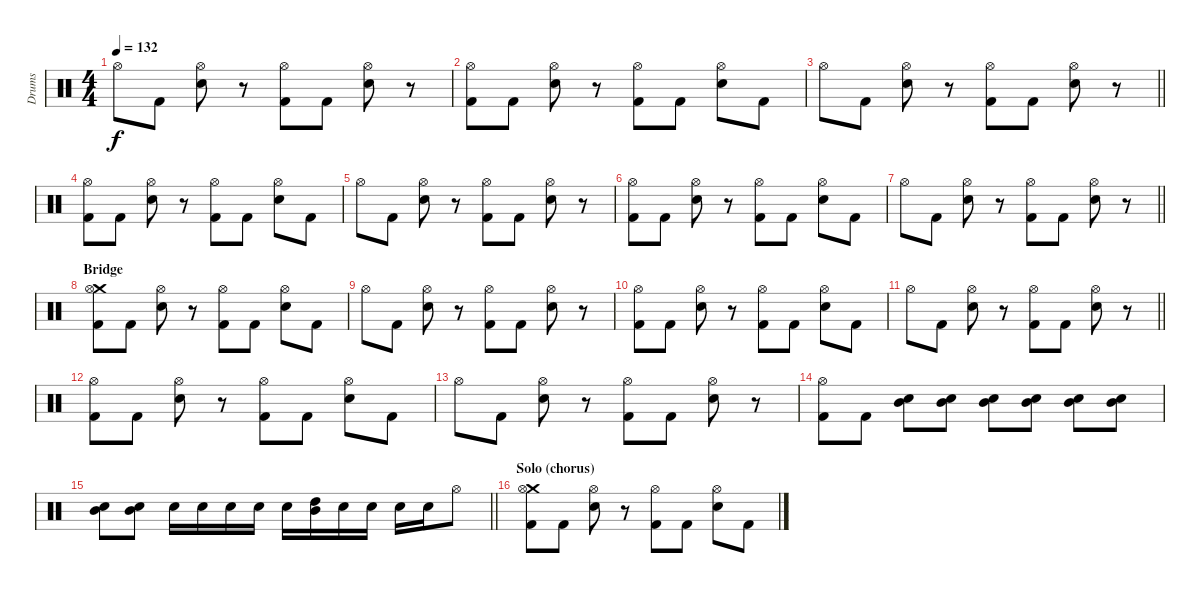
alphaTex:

\track ("Drums" "Drums") {instrument percussion}
\staff
\articulation defaults
\ts (4 4)
\tempo 132
\clef neutral
\ks c "Hi-Hat (open)".8{dy f} "Kick (hit) 2".8
("Hi-Hat (open)" "Snare (hit) 2").8 r.8 ("Hi-Hat (open)" "Kick (hit) 2").8 "Kick (hit) 2".8 ("Hi-Hat (open)" "Snare (hit) 2").8 r.8 |
("Hi-Hat (open)" "Kick (hit) 2").8 "Kick (hit) 2".8 ("Hi-Hat (open)" "Snare (hit) 2").8 r.8 ("Hi-Hat (open)" "Kick (hit) 2").8 "Kick (hit) 2".8 ("Hi-Hat (open)" "Snare (hit) 2").8 "Kick (hit) 2".8 |
\barLineRight lightlight "Hi-Hat (open)".8 "Kick (hit) 2".8
("Hi-Hat (open)" "Snare (hit) 2").8 r.8 ("Hi-Hat (open)" "Kick (hit) 2").8 "Kick (hit) 2".8 ("Hi-Hat (open)" "Snare (hit) 2").8 r.8 |
("Hi-Hat (open)" "Kick (hit) 2").8 "Kick (hit) 2".8 ("Hi-Hat (open)" "Snare (hit) 2").8 r.8 ("Hi-Hat (open)" "Kick (hit) 2").8 "Kick (hit) 2".8 ("Hi-Hat (open)" "Snare (hit) 2").8 "Kick (hit) 2".8 |
"Hi-Hat (open)".8 "Kick (hit) 2".8 ("Hi-Hat (open)" "Snare (hit) 2").8 r.8 ("Hi-Hat (open)" "Kick (hit) 2").8 "Kick (hit) 2".8 ("Hi-Hat (open)" "Snare (hit) 2").8 r.8 |
("Hi-Hat (open)" "Kick (hit) 2").8 "Kick (hit) 2".8 ("Hi-Hat (open)" "Snare (hit) 2").8 r.8 ("Hi-Hat (open)" "Kick (hit) 2").8 "Kick (hit) 2".8 ("Hi-Hat (open)" "Snare (hit) 2").8 "Kick (hit) 2".8 |
\barLineRight lightlight "Hi-Hat (open)".8 "Kick (hit) 2".8
("Hi-Hat (open)" "Snare (hit) 2").8 r.8 ("Hi-Hat (open)" "Kick (hit) 2").8 "Kick (hit) 2".8 ("Hi-Hat (open)" "Snare (hit) 2").8 r.8 |
\section ("" "Bridge")
("Crash medium (hit)" "Hi-Hat (open)" "Kick (hit) 2").8 "Kick (hit) 2".8 ("Hi-Hat (open)" "Snare (hit) 2").8 r.8 ("Hi-Hat (open)" "Kick (hit) 2").8 "Kick (hit) 2".8 ("Hi-Hat (open)" "Snare (hit) 2").8 "Kick (hit) 2".8 |
"Hi-Hat (open)".8 "Kick (hit) 2".8 ("Hi-Hat (open)" "Snare (hit) 2").8 r.8 ("Hi-Hat (open)" "Kick (hit) 2").8 "Kick (hit) 2".8 ("Hi-Hat (open)" "Snare (hit) 2").8 r.8 |
("Hi-Hat (open)" "Kick (hit) 2").8 "Kick (hit) 2".8 ("Hi-Hat (open)" "Snare (hit) 2").8 r.8 ("Hi-Hat (open)" "Kick (hit) 2").8 "Kick (hit) 2".8 ("Hi-Hat (open)" "Snare (hit) 2").8 "Kick (hit) 2".8 |
\barLineRight lightlight "Hi-Hat (open)".8 "Kick (hit) 2".8
("Hi-Hat (open)" "Snare (hit) 2").8 r.8 ("Hi-Hat (open)" "Kick (hit) 2").8 "Kick (hit) 2".8 ("Hi-Hat (open)" "Snare (hit) 2").8 r.8 |
("Hi-Hat (open)" "Kick (hit) 2").8 "Kick (hit) 2".8 ("Hi-Hat (open)" "Snare (hit) 2").8 r.8 ("Hi-Hat (open)" "Kick (hit) 2").8 "Kick (hit) 2".8 ("Hi-Hat (open)" "Snare (hit) 2").8 "Kick (hit) 2".8 |
"Hi-Hat (open)".8 "Kick (hit) 2".8 ("Hi-Hat (open)" "Snare (hit) 2").8 r.8 ("Hi-Hat (open)" "Kick (hit) 2").8 "Kick (hit) 2".8 ("Hi-Hat (open)" "Snare (hit) 2").8 r.8 |
("Hi-Hat (open)" "Kick (hit) 2").8 "Kick (hit) 2".8 ("Mid Tom (hit)" "Snare (hit) 2").8 ("Mid Tom (hit)" "Snare (hit) 2").8 ("Mid Tom (hit)" "Snare (hit) 2").8 ("Mid Tom (hit)" "Snare (hit) 2").8 ("Mid Tom (hit)" "Snare (hit) 2").8 ("Mid Tom (hit)" "Snare (hit) 2").8 |
\barLineRight lightlight
("Mid Tom (hit)" "Snare (hit) 2").8 ("Mid Tom (hit)" "Snare (hit) 2").8 "Snare (hit) 2".16 "Snare (hit) 2".16 "Snare (hit) 2".16 "Snare (hit) 2".16 "Snare (hit) 2".16 ("Mid Tom (hit)" "High Tom (hit)").16 "Snare (hit) 2".16 "Snare (hit) 2".16 "Snare (hit) 2".16 "Snare (hit) 2".16 "Hi-Hat (open)".8 |
\section ("" "Solo (chorus)")
("Crash medium (hit)" "Hi-Hat (open)" "Kick (hit) 2").8 "Kick (hit) 2".8 ("Hi-Hat (open)" "Snare (hit) 2").8 r.8 ("Hi-Hat (open)" "Kick (hit) 2").8 "Kick (hit) 2".8 ("Hi-Hat (open)" "Snare (hit) 2").8 "Kick (hit) 2".8
